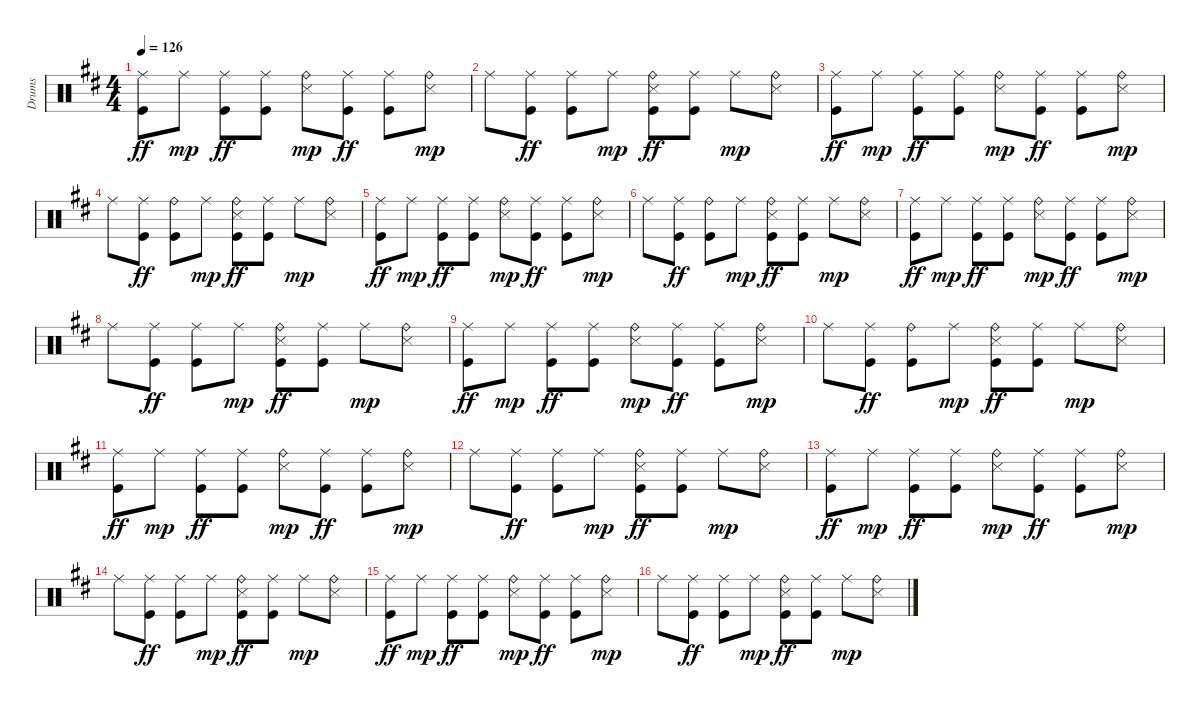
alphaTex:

\track ("Drums" "Drums") {instrument percussion}
\staff {score}
\articulation defaults
\ts (4 4)
\tempo 126
\clef neutral
\ks bminor
("Ride (middle)" "Kick (hit)").8{dy ff} "Ride (middle)".8{dy mp} ("Ride (middle)" "Kick (hit)").8{dy ff} ("Ride (middle)" "Kick (hit)").8 ("Ride (bell)" "Snare (side stick) 3").8{dy mp} ("Ride (middle)" "Kick (hit)").8{dy ff} ("Ride (middle)" "Kick (hit)").8 ("Ride (bell)" "Snare (side stick) 3").8{dy mp} |
"Ride (middle)".8 ("Ride (middle)" "Kick (hit)").8{dy ff} ("Ride (middle)" "Kick (hit)").8 "Ride (middle)".8{dy mp} ("Ride (bell)" "Snare (side stick) 3" "Kick (hit)").8{dy ff} ("Ride (middle)" "Kick (hit)").8 "Ride (middle)".8{dy mp} ("Ride (bell)" "Snare (side stick) 3").8 |
("Ride (middle)" "Kick (hit)").8{dy ff} "Ride (middle)".8{dy mp} ("Ride (middle)" "Kick (hit)").8{dy ff} ("Ride (middle)" "Kick (hit)").8 ("Ride (bell)" "Snare (side stick) 3").8{dy mp} ("Ride (middle)" "Kick (hit)").8{dy ff} ("Ride (middle)" "Kick (hit)").8 ("Ride (bell)" "Snare (side stick) 3").8{dy mp} |
"Ride (middle)".8 ("Ride (middle)" "Kick (hit)").8{dy ff} ("Ride (bell)" "Kick (hit)").8 "Ride (middle)".8{dy mp} ("Ride (bell)" "Snare (side stick) 3" "Kick (hit)").8{dy ff} ("Ride (middle)" "Kick (hit)").8 "Ride (middle)".8{dy mp} ("Ride (bell)" "Snare (side stick) 3").8 |
("Ride (middle)" "Kick (hit)").8{dy ff} "Ride (middle)".8{dy mp} ("Ride (middle)" "Kick (hit)").8{dy ff} ("Ride (middle)" "Kick (hit)").8 ("Ride (bell)" "Snare (side stick) 3").8{dy mp} ("Ride (middle)" "Kick (hit)").8{dy ff} ("Ride (middle)" "Kick (hit)").8 ("Ride (bell)" "Snare (side stick) 3").8{dy mp} |
"Ride (middle)".8 ("Ride (middle)" "Kick (hit)").8{dy ff} ("Ride (bell)" "Kick (hit)").8 "Ride (middle)".8{dy mp} ("Ride (bell)" "Snare (side stick) 3" "Kick (hit)").8{dy ff} ("Ride (middle)" "Kick (hit)").8 "Ride (middle)".8{dy mp} ("Ride (bell)" "Snare (side stick) 3").8 |
("Ride (middle)" "Kick (hit)").8{dy ff} "Ride (middle)".8{dy mp} ("Ride (middle)" "Kick (hit)").8{dy ff} ("Ride (middle)" "Kick (hit)").8 ("Ride (bell)" "Snare (side stick) 3").8{dy mp} ("Ride (middle)" "Kick (hit)").8{dy ff} ("Ride (middle)" "Kick (hit)").8 ("Ride (bell)" "Snare (side stick) 3").8{dy mp} |
"Ride (middle)".8 ("Ride (middle)" "Kick (hit)").8{dy ff} ("Ride (middle)" "Kick (hit)").8 "Ride (middle)".8{dy mp} ("Ride (bell)" "Snare (side stick) 3" "Kick (hit)").8{dy ff} ("Ride (middle)" "Kick (hit)").8 "Ride (middle)".8{dy mp} ("Ride (bell)" "Snare (side stick) 3").8 |
("Ride (middle)" "Kick (hit)").8{dy ff} "Ride (middle)".8{dy mp} ("Ride (middle)" "Kick (hit)").8{dy ff} ("Ride (middle)" "Kick (hit)").8 ("Ride (bell)" "Snare (side stick) 3").8{dy mp} ("Ride (middle)" "Kick (hit)").8{dy ff} ("Ride (middle)" "Kick (hit)").8 ("Ride (bell)" "Snare (side stick) 3").8{dy mp} |
"Ride (middle)".8 ("Ride (middle)" "Kick (hit)").8{dy ff} ("Ride (bell)" "Kick (hit)").8 "Ride (middle)".8{dy mp} ("Ride (bell)" "Snare (side stick) 3" "Kick (hit)").8{dy ff} ("Ride (middle)" "Kick (hit)").8 "Ride (middle)".8{dy mp} ("Ride (bell)" "Snare (side stick) 3").8 |
("Ride (middle)" "Kick (hit)").8{dy ff} "Ride (middle)".8{dy mp} ("Ride (middle)" "Kick (hit)").8{dy ff} ("Ride (middle)" "Kick (hit)").8 ("Ride (bell)" "Snare (side stick) 3").8{dy mp} ("Ride (middle)" "Kick (hit)").8{dy ff} ("Ride (middle)" "Kick (hit)").8 ("Ride (bell)" "Snare (side stick) 3").8{dy mp} |
"Ride (middle)".8 ("Ride (middle)" "Kick (hit)").8{dy ff} ("Ride (middle)" "Kick (hit)").8 "Ride (middle)".8{dy mp} ("Ride (bell)" "Snare (side stick) 3" "Kick (hit)").8{dy ff} ("Ride (middle)" "Kick (hit)").8 "Ride (middle)".8{dy mp} ("Ride (bell)" "Snare (side stick) 3").8 |
("Ride (middle)" "Kick (hit)").8{dy ff} "Ride (middle)".8{dy mp} ("Ride (middle)" "Kick (hit)").8{dy ff} ("Ride (middle)" "Kick (hit)").8 ("Ride (bell)" "Snare (side stick) 3").8{dy mp} ("Ride (middle)" "Kick (hit)").8{dy ff} ("Ride (middle)" "Kick (hit)").8 ("Ride (bell)" "Snare (side stick) 3").8{dy mp} |
"Ride (middle)".8 ("Ride (middle)" "Kick (hit)").8{dy ff} ("Ride (middle)" "Kick (hit)").8 "Ride (middle)".8{dy mp} ("Ride (bell)" "Snare (side stick) 3" "Kick (hit)").8{dy ff} ("Ride (middle)" "Kick (hit)").8 "Ride (middle)".8{dy mp} ("Ride (bell)" "Snare (side stick) 3").8 |
("Ride (middle)" "Kick (hit)").8{dy ff} "Ride (middle)".8{dy mp} ("Ride (middle)" "Kick (hit)").8{dy ff} ("Ride (middle)" "Kick (hit)").8 ("Ride (bell)" "Snare (side stick) 3").8{dy mp} ("Ride (middle)" "Kick (hit)").8{dy ff} ("Ride (middle)" "Kick (hit)").8 ("Ride (bell)" "Snare (side stick) 3").8{dy mp} |
"Ride (middle)".8 ("Ride (middle)" "Kick (hit)").8{dy ff} ("Ride (middle)" "Kick (hit)").8 "Ride (middle)".8{dy mp} ("Ride (bell)" "Snare (side stick) 3" "Kick (hit)").8{dy ff} ("Ride (middle)" "Kick (hit)").8 "Ride (middle)".8{dy mp} ("Ride (bell)" "Snare (side stick) 3").8
